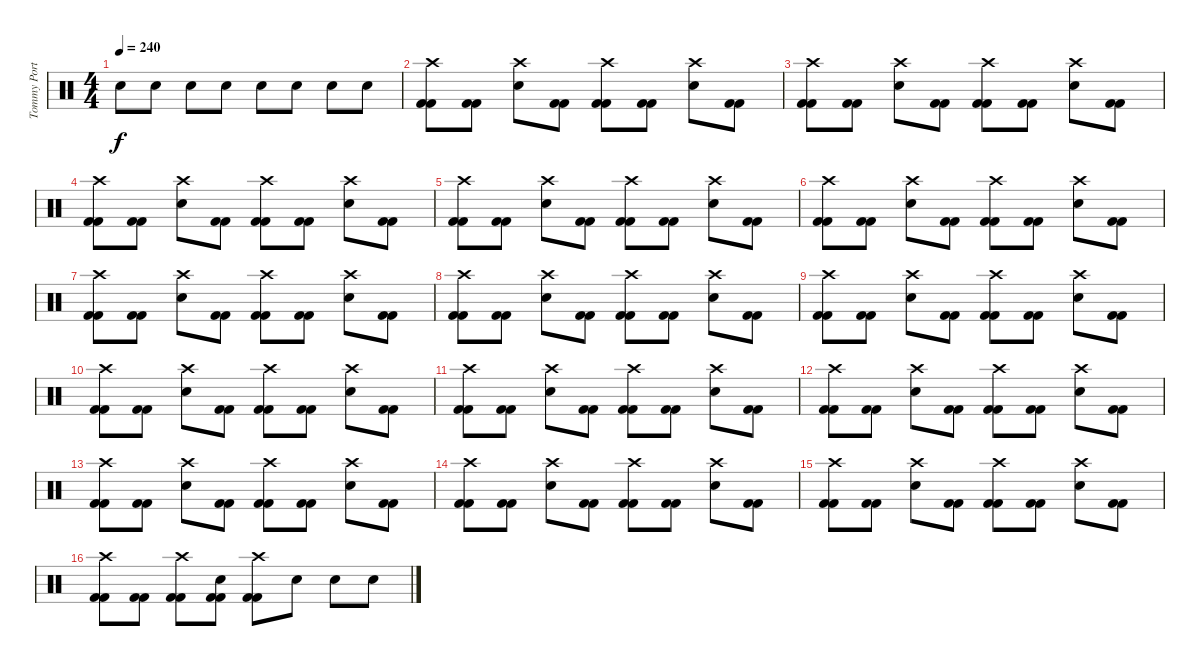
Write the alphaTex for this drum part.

\track ("Tommy Portimo " "Tommy Port") {instrument percussion}
\staff {score}
\articulation defaults
\ts (4 4)
\tempo 240
\clef neutral
\ks c "Electric Snare (hit)".8{dy f} "Electric Snare (hit)".8 "Electric Snare (hit)".8 "Electric Snare (hit)".8 "Electric Snare (hit)".8 "Electric Snare (hit)".8 "Electric Snare (hit)".8 "Electric Snare (hit)".8
|
("Crash high (hit)" "Kick (hit) 2" "Kick (hit) 2").8 ("Kick (hit) 2" "Kick (hit) 2").8 ("Crash high (hit)" "Electric Snare (hit)").8 ("Kick (hit) 2" "Kick (hit) 2").8 ("Crash high (hit)" "Kick (hit) 2" "Kick (hit) 2").8 ("Kick (hit) 2" "Kick (hit) 2").8 ("Crash high (hit)" "Electric Snare (hit)").8 ("Kick (hit) 2" "Kick (hit) 2").8 |
("Crash high (hit)" "Kick (hit) 2" "Kick (hit) 2").8 ("Kick (hit) 2" "Kick (hit) 2").8 ("Crash high (hit)" "Electric Snare (hit)").8 ("Kick (hit) 2" "Kick (hit) 2").8 ("Crash high (hit)" "Kick (hit) 2" "Kick (hit) 2").8 ("Kick (hit) 2" "Kick (hit) 2").8 ("Crash high (hit)" "Electric Snare (hit)").8 ("Kick (hit) 2" "Kick (hit) 2").8 |
("Crash high (hit)" "Kick (hit) 2" "Kick (hit) 2").8 ("Kick (hit) 2" "Kick (hit) 2").8 ("Crash high (hit)" "Electric Snare (hit)").8 ("Kick (hit) 2" "Kick (hit) 2").8 ("Crash high (hit)" "Kick (hit) 2" "Kick (hit) 2").8 ("Kick (hit) 2" "Kick (hit) 2").8 ("Crash high (hit)" "Electric Snare (hit)").8 ("Kick (hit) 2" "Kick (hit) 2").8 |
("Crash high (hit)" "Kick (hit) 2" "Kick (hit) 2").8 ("Kick (hit) 2" "Kick (hit) 2").8 ("Crash high (hit)" "Electric Snare (hit)").8 ("Kick (hit) 2" "Kick (hit) 2").8 ("Crash high (hit)" "Kick (hit) 2" "Kick (hit) 2").8 ("Kick (hit) 2" "Kick (hit) 2").8 ("Crash high (hit)" "Electric Snare (hit)").8 ("Kick (hit) 2" "Kick (hit) 2").8 |
("Crash high (hit)" "Kick (hit) 2" "Kick (hit) 2").8 ("Kick (hit) 2" "Kick (hit) 2").8 ("Crash high (hit)" "Electric Snare (hit)").8 ("Kick (hit) 2" "Kick (hit) 2").8 ("Crash high (hit)" "Kick (hit) 2" "Kick (hit) 2").8 ("Kick (hit) 2" "Kick (hit) 2").8 ("Crash high (hit)" "Electric Snare (hit)").8 ("Kick (hit) 2" "Kick (hit) 2").8 |
("Crash high (hit)" "Kick (hit) 2" "Kick (hit) 2").8 ("Kick (hit) 2" "Kick (hit) 2").8 ("Crash high (hit)" "Electric Snare (hit)").8 ("Kick (hit) 2" "Kick (hit) 2").8 ("Crash high (hit)" "Kick (hit) 2" "Kick (hit) 2").8 ("Kick (hit) 2" "Kick (hit) 2").8 ("Crash high (hit)" "Electric Snare (hit)").8 ("Kick (hit) 2" "Kick (hit) 2").8 |
("Crash high (hit)" "Kick (hit) 2" "Kick (hit) 2").8 ("Kick (hit) 2" "Kick (hit) 2").8 ("Crash high (hit)" "Electric Snare (hit)").8 ("Kick (hit) 2" "Kick (hit) 2").8 ("Crash high (hit)" "Kick (hit) 2" "Kick (hit) 2").8 ("Kick (hit) 2" "Kick (hit) 2").8 ("Crash high (hit)" "Electric Snare (hit)").8 ("Kick (hit) 2" "Kick (hit) 2").8 |
("Crash high (hit)" "Kick (hit) 2" "Kick (hit) 2").8 ("Kick (hit) 2" "Kick (hit) 2").8 ("Crash high (hit)" "Electric Snare (hit)").8 ("Kick (hit) 2" "Kick (hit) 2").8 ("Crash high (hit)" "Kick (hit) 2" "Kick (hit) 2").8 ("Kick (hit) 2" "Kick (hit) 2").8 ("Crash high (hit)" "Electric Snare (hit)").8 ("Kick (hit) 2" "Kick (hit) 2").8 |
("Crash high (hit)" "Kick (hit) 2" "Kick (hit) 2").8 ("Kick (hit) 2" "Kick (hit) 2").8 ("Crash high (hit)" "Electric Snare (hit)").8 ("Kick (hit) 2" "Kick (hit) 2").8 ("Crash high (hit)" "Kick (hit) 2" "Kick (hit) 2").8 ("Kick (hit) 2" "Kick (hit) 2").8 ("Crash high (hit)" "Electric Snare (hit)").8 ("Kick (hit) 2" "Kick (hit) 2").8 |
("Crash high (hit)" "Kick (hit) 2" "Kick (hit) 2").8 ("Kick (hit) 2" "Kick (hit) 2").8 ("Crash high (hit)" "Electric Snare (hit)").8 ("Kick (hit) 2" "Kick (hit) 2").8 ("Crash high (hit)" "Kick (hit) 2" "Kick (hit) 2").8 ("Kick (hit) 2" "Kick (hit) 2").8 ("Crash high (hit)" "Electric Snare (hit)").8 ("Kick (hit) 2" "Kick (hit) 2").8 |
("Crash high (hit)" "Kick (hit) 2" "Kick (hit) 2").8 ("Kick (hit) 2" "Kick (hit) 2").8 ("Crash high (hit)" "Electric Snare (hit)").8 ("Kick (hit) 2" "Kick (hit) 2").8 ("Crash high (hit)" "Kick (hit) 2" "Kick (hit) 2").8 ("Kick (hit) 2" "Kick (hit) 2").8 ("Crash high (hit)" "Electric Snare (hit)").8 ("Kick (hit) 2" "Kick (hit) 2").8 |
("Crash high (hit)" "Kick (hit) 2" "Kick (hit) 2").8 ("Kick (hit) 2" "Kick (hit) 2").8 ("Crash high (hit)" "Electric Snare (hit)").8 ("Kick (hit) 2" "Kick (hit) 2").8 ("Crash high (hit)" "Kick (hit) 2" "Kick (hit) 2").8 ("Kick (hit) 2" "Kick (hit) 2").8 ("Crash high (hit)" "Electric Snare (hit)").8 ("Kick (hit) 2" "Kick (hit) 2").8 |
("Crash high (hit)" "Kick (hit) 2" "Kick (hit) 2").8 ("Kick (hit) 2" "Kick (hit) 2").8 ("Crash high (hit)" "Electric Snare (hit)").8 ("Kick (hit) 2" "Kick (hit) 2").8 ("Crash high (hit)" "Kick (hit) 2" "Kick (hit) 2").8 ("Kick (hit) 2" "Kick (hit) 2").8 ("Crash high (hit)" "Electric Snare (hit)").8 ("Kick (hit) 2" "Kick (hit) 2").8 |
("Crash high (hit)" "Kick (hit) 2" "Kick (hit) 2").8 ("Kick (hit) 2" "Kick (hit) 2").8 ("Crash high (hit)" "Electric Snare (hit)").8 ("Kick (hit) 2" "Kick (hit) 2").8 ("Crash high (hit)" "Kick (hit) 2" "Kick (hit) 2").8 ("Kick (hit) 2" "Kick (hit) 2").8 ("Crash high (hit)" "Electric Snare (hit)").8 ("Kick (hit) 2" "Kick (hit) 2").8 |
("Crash high (hit)" "Kick (hit) 2" "Kick (hit) 2").8 ("Kick (hit) 2" "Kick (hit) 2").8 ("Crash high (hit)" "Kick (hit) 2" "Kick (hit) 2").8 ("Electric Snare (hit)" "Kick (hit) 2" "Kick (hit) 2").8 ("Crash high (hit)" "Kick (hit) 2" "Kick (hit) 2").8 "Electric Snare (hit)".8 "Electric Snare (hit)".8 "Electric Snare (hit)".8
